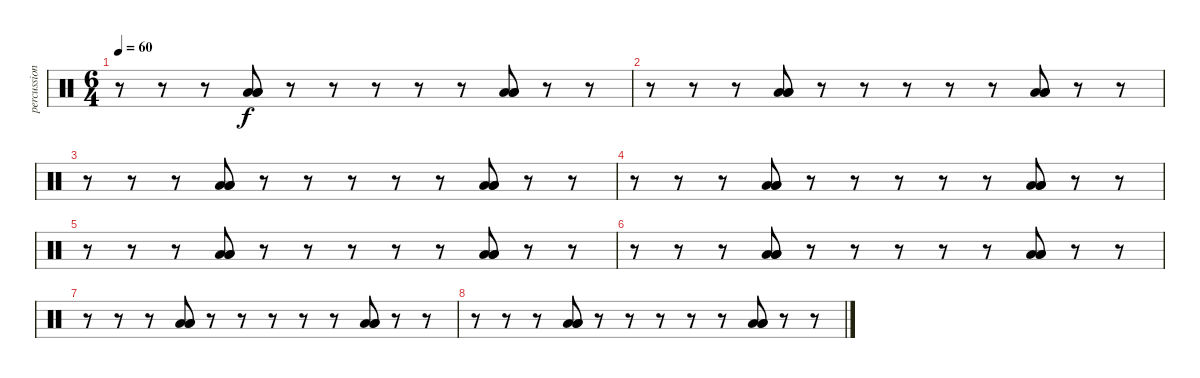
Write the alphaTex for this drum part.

\track ("percussion" "percussion") {instrument percussion}
\staff {score}
\articulation defaults
\ts (6 4)
\tempo 60
\clef neutral
\ks c
r.8{dy f} r.8 r.8 ("Low Floor Tom (hit)" "Low Floor Tom (hit)" "Low Floor Tom (hit)").8 r.8 r.8 r.8 r.8 r.8 ("Low Floor Tom (hit)" "Low Floor Tom (hit)" "Low Floor Tom (hit)").8 r.8 r.8 |
r.8 r.8 r.8 ("Low Floor Tom (hit)" "Low Floor Tom (hit)" "Low Floor Tom (hit)").8 r.8 r.8 r.8 r.8 r.8 ("Low Floor Tom (hit)" "Low Floor Tom (hit)" "Low Floor Tom (hit)").8 r.8 r.8 |
r.8 r.8 r.8 ("Low Floor Tom (hit)" "Low Floor Tom (hit)" "Low Floor Tom (hit)").8 r.8 r.8 r.8 r.8 r.8 ("Low Floor Tom (hit)" "Low Floor Tom (hit)" "Low Floor Tom (hit)").8 r.8 r.8 |
r.8 r.8 r.8 ("Low Floor Tom (hit)" "Low Floor Tom (hit)" "Low Floor Tom (hit)").8 r.8 r.8 r.8 r.8 r.8 ("Low Floor Tom (hit)" "Low Floor Tom (hit)" "Low Floor Tom (hit)").8 r.8 r.8 |
r.8 r.8 r.8 ("Low Floor Tom (hit)" "Low Floor Tom (hit)" "Low Floor Tom (hit)").8 r.8 r.8 r.8 r.8 r.8 ("Low Floor Tom (hit)" "Low Floor Tom (hit)" "Low Floor Tom (hit)").8 r.8 r.8 |
r.8 r.8 r.8 ("Low Floor Tom (hit)" "Low Floor Tom (hit)" "Low Floor Tom (hit)").8 r.8 r.8 r.8 r.8 r.8 ("Low Floor Tom (hit)" "Low Floor Tom (hit)" "Low Floor Tom (hit)").8 r.8 r.8 |
r.8 r.8 r.8 ("Low Floor Tom (hit)" "Low Floor Tom (hit)" "Low Floor Tom (hit)").8 r.8 r.8 r.8 r.8 r.8 ("Low Floor Tom (hit)" "Low Floor Tom (hit)" "Low Floor Tom (hit)").8 r.8 r.8 |
r.8 r.8 r.8 ("Low Floor Tom (hit)" "Low Floor Tom (hit)" "Low Floor Tom (hit)").8 r.8 r.8 r.8 r.8 r.8 ("Low Floor Tom (hit)" "Low Floor Tom (hit)" "Low Floor Tom (hit)").8 r.8 r.8
